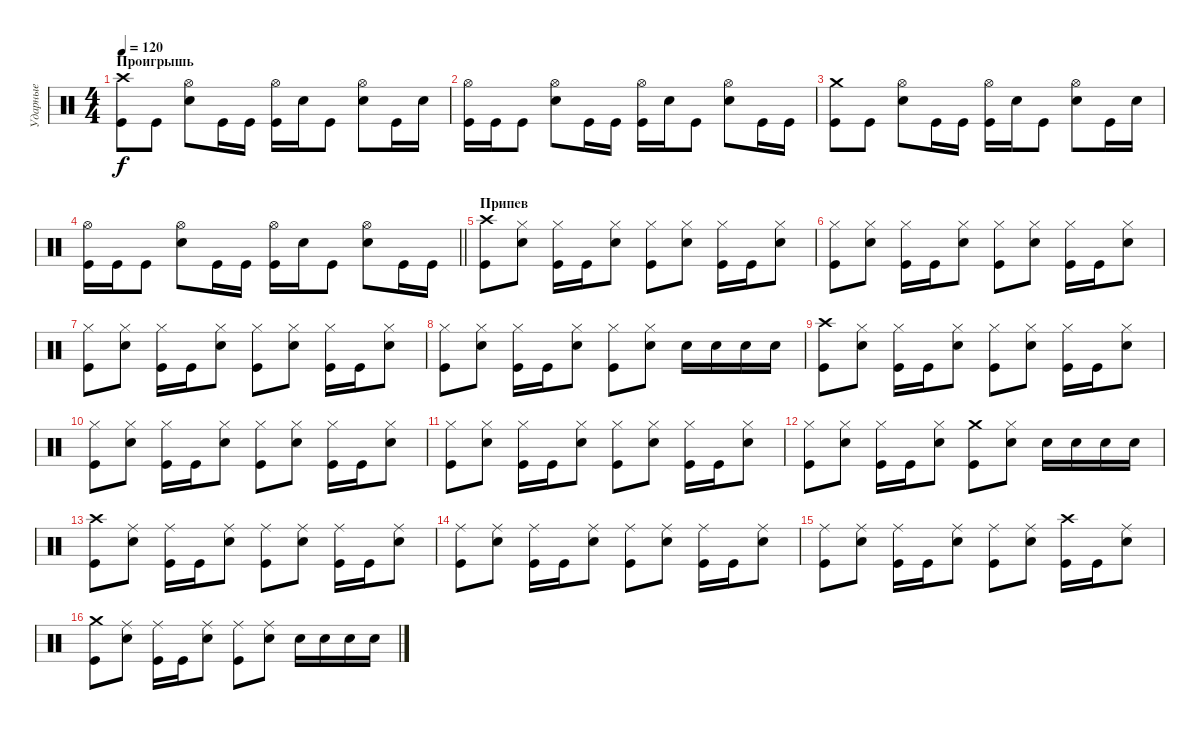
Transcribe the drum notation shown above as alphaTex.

\track ("Ударные" "Ударные") {solo instrument percussion}
\staff {score}
\articulation defaults
\ts (4 4)
\section ("" "Проигрышь")
\tempo 120
\clef neutral
\ks c
("Kick (hit)" "Crash high (hit)").8{dy f} "Kick (hit)".8 ("Snare (hit) 2" "Hi-Hat (open)").8 "Kick (hit)".16 "Kick (hit)".16 ("Kick (hit)" "Hi-Hat (open)").16 "Snare (hit) 2".16 "Kick (hit)".8 ("Snare (hit) 2" "Hi-Hat (open)").8 "Kick (hit)".16 "Snare (hit) 2".16 |
("Kick (hit)" "Hi-Hat (open)").16 "Kick (hit)".16 "Kick (hit)".8 ("Snare (hit) 2" "Hi-Hat (open)").8 "Kick (hit)".16 "Kick (hit)".16 ("Kick (hit)" "Hi-Hat (open)").16 "Snare (hit) 2".16 "Kick (hit)".8 ("Snare (hit) 2" "Hi-Hat (open)").8 "Kick (hit)".16 "Kick (hit)".16 |
("Kick (hit)" "Crash medium (hit)").8 "Kick (hit)".8 ("Snare (hit) 2" "Hi-Hat (open)").8 "Kick (hit)".16 "Kick (hit)".16 ("Kick (hit)" "Hi-Hat (open)").16 "Snare (hit) 2".16 "Kick (hit)".8 ("Snare (hit) 2" "Hi-Hat (open)").8 "Kick (hit)".16 "Snare (hit) 2".16 |
\barLineRight lightlight
("Kick (hit)" "Hi-Hat (open)").16 "Kick (hit)".16 "Kick (hit)".8 ("Snare (hit) 2" "Hi-Hat (open)").8 "Kick (hit)".16 "Kick (hit)".16 ("Kick (hit)" "Hi-Hat (open)").16 "Snare (hit) 2".16 "Kick (hit)".8 ("Snare (hit) 2" "Hi-Hat (open)").8 "Kick (hit)".16 "Kick (hit)".16 |
\section ("" "Припев")
("Kick (hit)" "Crash high (hit)").8 ("Snare (hit) 2" "Hi-Hat (closed)").8 ("Kick (hit)" "Hi-Hat (closed)").16 "Kick (hit)".16 ("Snare (hit) 2" "Hi-Hat (closed)").8 ("Kick (hit)" "Hi-Hat (closed)").8 ("Snare (hit) 2" "Hi-Hat (closed)").8 ("Kick (hit)" "Hi-Hat (closed)").16 "Kick (hit)".16 ("Snare (hit) 2" "Hi-Hat (closed)").8 |
("Kick (hit)" "Hi-Hat (closed)").8 ("Snare (hit) 2" "Hi-Hat (closed)").8 ("Kick (hit)" "Hi-Hat (closed)").16 "Kick (hit)".16 ("Snare (hit) 2" "Hi-Hat (closed)").8 ("Kick (hit)" "Hi-Hat (closed)").8 ("Snare (hit) 2" "Hi-Hat (closed)").8 ("Kick (hit)" "Hi-Hat (closed)").16 "Kick (hit)".16 ("Snare (hit) 2" "Hi-Hat (closed)").8 |
("Kick (hit)" "Hi-Hat (closed)").8 ("Snare (hit) 2" "Hi-Hat (closed)").8 ("Kick (hit)" "Hi-Hat (closed)").16 "Kick (hit)".16 ("Snare (hit) 2" "Hi-Hat (closed)").8 ("Kick (hit)" "Hi-Hat (closed)").8 ("Snare (hit) 2" "Hi-Hat (closed)").8 ("Kick (hit)" "Hi-Hat (closed)").16 "Kick (hit)".16 ("Snare (hit) 2" "Hi-Hat (closed)").8 |
("Kick (hit)" "Hi-Hat (closed)").8 ("Snare (hit) 2" "Hi-Hat (closed)").8 ("Kick (hit)" "Hi-Hat (closed)").16 "Kick (hit)".16 ("Snare (hit) 2" "Hi-Hat (closed)").8 ("Kick (hit)" "Hi-Hat (closed)").8 ("Snare (hit) 2" "Hi-Hat (closed)").8 "Snare (hit) 2".16 "Snare (hit) 2".16 "Snare (hit) 2".16 "Snare (hit) 2".16 |
("Kick (hit)" "Crash high (hit)").8 ("Snare (hit) 2" "Hi-Hat (closed)").8 ("Kick (hit)" "Hi-Hat (closed)").16 "Kick (hit)".16 ("Snare (hit) 2" "Hi-Hat (closed)").8 ("Kick (hit)" "Hi-Hat (closed)").8 ("Snare (hit) 2" "Hi-Hat (closed)").8 ("Kick (hit)" "Hi-Hat (closed)").16 "Kick (hit)".16 ("Snare (hit) 2" "Hi-Hat (closed)").8 |
("Kick (hit)" "Hi-Hat (closed)").8 ("Snare (hit) 2" "Hi-Hat (closed)").8 ("Kick (hit)" "Hi-Hat (closed)").16 "Kick (hit)".16 ("Snare (hit) 2" "Hi-Hat (closed)").8 ("Kick (hit)" "Hi-Hat (closed)").8 ("Snare (hit) 2" "Hi-Hat (closed)").8 ("Kick (hit)" "Hi-Hat (closed)").16 "Kick (hit)".16 ("Snare (hit) 2" "Hi-Hat (closed)").8 |
("Kick (hit)" "Hi-Hat (closed)").8 ("Snare (hit) 2" "Hi-Hat (closed)").8 ("Kick (hit)" "Hi-Hat (closed)").16 "Kick (hit)".16 ("Snare (hit) 2" "Hi-Hat (closed)").8 ("Kick (hit)" "Hi-Hat (closed)").8 ("Snare (hit) 2" "Hi-Hat (closed)").8 ("Kick (hit)" "Hi-Hat (closed)").16 "Kick (hit)".16 ("Snare (hit) 2" "Hi-Hat (closed)").8 |
("Kick (hit)" "Hi-Hat (closed)").8 ("Snare (hit) 2" "Hi-Hat (closed)").8 ("Kick (hit)" "Hi-Hat (closed)").16 "Kick (hit)".16 ("Snare (hit) 2" "Hi-Hat (closed)").8 ("Kick (hit)" "Crash medium (hit)").8 ("Snare (hit) 2" "Hi-Hat (closed)").8 "Snare (hit) 2".16 "Snare (hit) 2".16 "Snare (hit) 2".16 "Snare (hit) 2".16 |
("Kick (hit)" "Crash high (hit)").8 ("Snare (hit) 2" "Ride (middle)").8 ("Kick (hit)" "Ride (middle)").16 "Kick (hit)".16 ("Snare (hit) 2" "Ride (middle)").8 ("Kick (hit)" "Ride (middle)").8 ("Snare (hit) 2" "Ride (middle)").8 ("Kick (hit)" "Ride (middle)").16 "Kick (hit)".16 ("Snare (hit) 2" "Ride (middle)").8 |
("Kick (hit)" "Ride (middle)").8 ("Snare (hit) 2" "Ride (middle)").8 ("Kick (hit)" "Ride (middle)").16 "Kick (hit)".16 ("Snare (hit) 2" "Ride (middle)").8 ("Kick (hit)" "Ride (middle)").8 ("Snare (hit) 2" "Ride (middle)").8 ("Kick (hit)" "Ride (middle)").16 "Kick (hit)".16 ("Snare (hit) 2" "Ride (middle)").8 |
("Kick (hit)" "Ride (middle)").8 ("Snare (hit) 2" "Ride (middle)").8 ("Kick (hit)" "Ride (middle)").16 "Kick (hit)".16 ("Snare (hit) 2" "Ride (middle)").8 ("Kick (hit)" "Ride (middle)").8 ("Snare (hit) 2" "Ride (middle)").8 ("Kick (hit)" "Crash high (hit)").16 "Kick (hit)".16 ("Snare (hit) 2" "Ride (middle)").8 |
("Kick (hit)" "Crash medium (hit)").8 ("Snare (hit) 2" "Ride (middle)").8 ("Kick (hit)" "Ride (middle)").16 "Kick (hit)".16 ("Snare (hit) 2" "Ride (middle)").8 ("Kick (hit)" "Ride (middle)").8 ("Snare (hit) 2" "Ride (middle)").8 "Snare (hit) 2".16 "Snare (hit) 2".16 "Snare (hit) 2".16 "Snare (hit) 2".16
